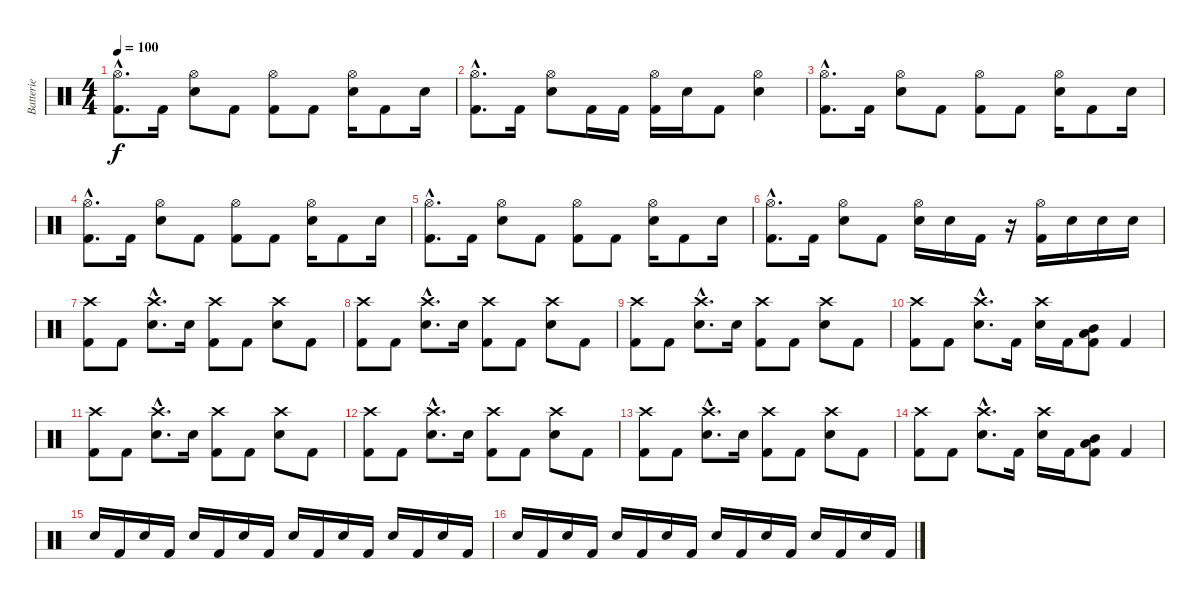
\track ("Batterie" "Batterie") {instrument percussion}
\staff {score}
\articulation defaults
\ts (4 4)
\tempo 100
\clef neutral
\ks c
("Hi-Hat (open)"{hac} "Kick (hit) 2"{hac}).8{d dy f} "Kick (hit) 2".16 ("Hi-Hat (open)" "Snare (hit) 2").8 "Kick (hit) 2".8 ("Hi-Hat (open)" "Kick (hit) 2").8 "Kick (hit) 2".8 ("Hi-Hat (open)" "Snare (hit) 2").16 "Kick (hit) 2".8 "Snare (hit) 2".16 |
("Hi-Hat (open)"{hac} "Kick (hit) 2"{hac}).8{d} "Kick (hit) 2".16 ("Hi-Hat (open)" "Snare (hit) 2").8 "Kick (hit) 2".16 "Kick (hit) 2".16 ("Hi-Hat (open)" "Kick (hit) 2").16 "Snare (hit) 2".16 "Kick (hit) 2".8 ("Hi-Hat (open)" "Snare (hit) 2"{tr (38 32)}).4 |
("Hi-Hat (open)"{hac} "Kick (hit) 2"{hac}).8{d} "Kick (hit) 2".16 ("Hi-Hat (open)" "Snare (hit) 2").8 "Kick (hit) 2".8 ("Hi-Hat (open)" "Kick (hit) 2").8 "Kick (hit) 2".8 ("Hi-Hat (open)" "Snare (hit) 2").16 "Kick (hit) 2".8 "Snare (hit) 2".16 |
("Hi-Hat (open)"{hac} "Kick (hit) 2"{hac}).8{d} "Kick (hit) 2".16 ("Hi-Hat (open)" "Snare (hit) 2").8 "Kick (hit) 2".8 ("Hi-Hat (open)" "Kick (hit) 2").8 "Kick (hit) 2".8 ("Hi-Hat (open)" "Snare (hit) 2").16 "Kick (hit) 2".8 "Snare (hit) 2".16 |
("Hi-Hat (open)"{hac} "Kick (hit) 2"{hac}).8{d} "Kick (hit) 2".16 ("Hi-Hat (open)" "Snare (hit) 2").8 "Kick (hit) 2".8 ("Hi-Hat (open)" "Kick (hit) 2").8 "Kick (hit) 2".8 ("Hi-Hat (open)" "Snare (hit) 2").16 "Kick (hit) 2".8 "Snare (hit) 2".16 |
("Hi-Hat (open)"{hac} "Kick (hit) 2"{hac}).8{d} "Kick (hit) 2".16 ("Hi-Hat (open)" "Snare (hit) 2").8 "Kick (hit) 2".8 ("Hi-Hat (open)" "Snare (hit) 2").16 "Snare (hit) 2".16 "Kick (hit) 2".16 r.16 ("Hi-Hat (open)" "Kick (hit) 2").16 "Snare (hit) 2".16 "Snare (hit) 2".16 "Snare (hit) 2".16 |
("Crash high (hit)" "Kick (hit) 2").8 "Kick (hit) 2".8 ("Crash high (hit)"{hac} "Snare (hit) 2"{hac}).8{d} "Snare (hit) 2".16 ("Crash high (hit)" "Kick (hit) 2").8 "Kick (hit) 2".8 ("Crash high (hit)" "Snare (hit) 2").8 "Kick (hit) 2".8 |
("Crash high (hit)" "Kick (hit) 2").8 "Kick (hit) 2".8 ("Crash high (hit)"{hac} "Snare (hit) 2"{hac}).8{d} "Snare (hit) 2".16 ("Crash high (hit)" "Kick (hit) 2").8 "Kick (hit) 2".8 ("Crash high (hit)" "Snare (hit) 2").8 "Kick (hit) 2".8 |
("Crash high (hit)" "Kick (hit) 2").8 "Kick (hit) 2".8 ("Crash high (hit)"{hac} "Snare (hit) 2"{hac}).8{d} "Snare (hit) 2".16 ("Crash high (hit)" "Kick (hit) 2").8 "Kick (hit) 2".8 ("Crash high (hit)" "Snare (hit) 2").8 "Kick (hit) 2".8 |
("Crash high (hit)" "Kick (hit) 2").8 "Kick (hit) 2".8 ("Crash high (hit)"{hac} "Snare (hit) 2"{hac}).8{d} "Kick (hit) 2".16 ("Crash high (hit)" "Snare (hit) 2").16 "Kick (hit) 2".16 ("Low Tom (hit)" "Mid Tom (hit)" "Kick (hit) 2").8 "Kick (hit) 2"{tr (36 32)}.4 |
("Crash high (hit)" "Kick (hit) 2").8 "Kick (hit) 2".8 ("Crash high (hit)"{hac} "Snare (hit) 2"{hac}).8{d} "Snare (hit) 2".16 ("Crash high (hit)" "Kick (hit) 2").8 "Kick (hit) 2".8 ("Crash high (hit)" "Snare (hit) 2").8 "Kick (hit) 2".8 |
("Crash high (hit)" "Kick (hit) 2").8 "Kick (hit) 2".8 ("Crash high (hit)"{hac} "Snare (hit) 2"{hac}).8{d} "Snare (hit) 2".16 ("Crash high (hit)" "Kick (hit) 2").8 "Kick (hit) 2".8 ("Crash high (hit)" "Snare (hit) 2").8 "Kick (hit) 2".8 |
("Crash high (hit)" "Kick (hit) 2").8 "Kick (hit) 2".8 ("Crash high (hit)"{hac} "Snare (hit) 2"{hac}).8{d} "Snare (hit) 2".16 ("Crash high (hit)" "Kick (hit) 2").8 "Kick (hit) 2".8 ("Crash high (hit)" "Snare (hit) 2").8 "Kick (hit) 2".8 |
("Crash high (hit)" "Kick (hit) 2").8 "Kick (hit) 2".8 ("Crash high (hit)"{hac} "Snare (hit) 2"{hac}).8{d} "Kick (hit) 2".16 ("Crash high (hit)" "Snare (hit) 2").16 "Kick (hit) 2".16 ("Low Tom (hit)" "Mid Tom (hit)" "Kick (hit) 2").8 "Kick (hit) 2"{tr (36 32)}.4 |
"Snare (hit) 2".16 "Kick (hit) 2".16 "Snare (hit) 2".16 "Kick (hit) 2".16 "Snare (hit) 2".16 "Kick (hit) 2".16 "Snare (hit) 2".16 "Kick (hit) 2".16 "Snare (hit) 2".16 "Kick (hit) 2".16 "Snare (hit) 2".16 "Kick (hit) 2".16 "Snare (hit) 2".16 "Kick (hit) 2".16 "Snare (hit) 2".16 "Kick (hit) 2".16 |
"Snare (hit) 2".16 "Kick (hit) 2".16 "Snare (hit) 2".16 "Kick (hit) 2".16 "Snare (hit) 2".16 "Kick (hit) 2".16 "Snare (hit) 2".16 "Kick (hit) 2".16 "Snare (hit) 2".16 "Kick (hit) 2".16 "Snare (hit) 2".16 "Kick (hit) 2".16 "Snare (hit) 2".16 "Kick (hit) 2".16 "Snare (hit) 2".16 "Kick (hit) 2".16
